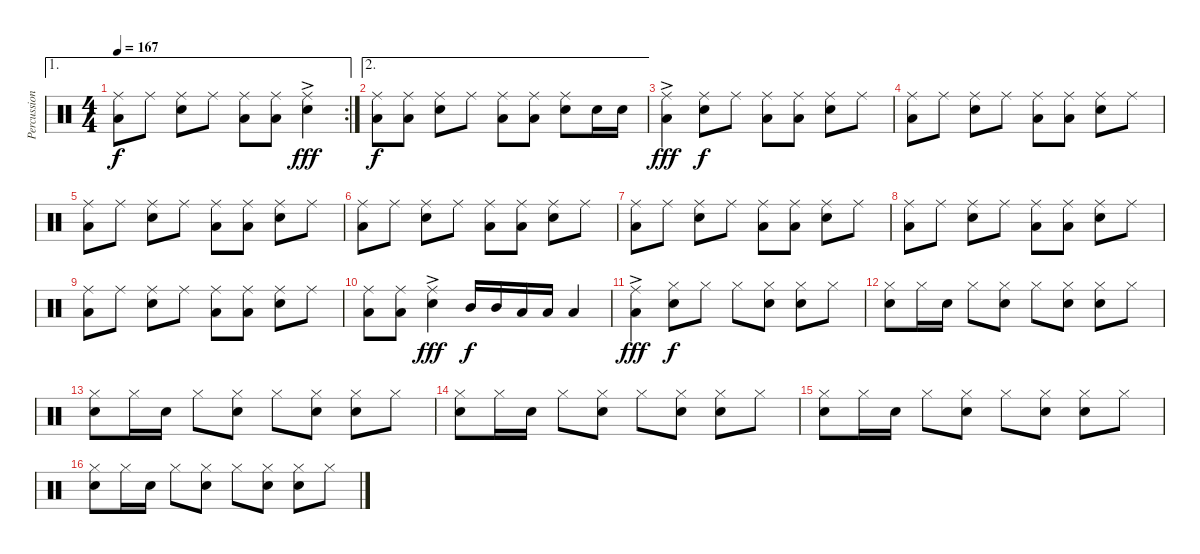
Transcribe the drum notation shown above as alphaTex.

\track ("Percussion" "Percussion") {instrument percussion}
\staff {score}
\articulation defaults
\ae 1
\rc 2
\ts (4 4)
\tempo 167
\clef neutral
\ks c
("Ride (middle)" "Low Floor Tom (hit)").8{dy f} "Ride (middle)".8 ("Ride (middle)" "Snare (hit) 2").8 "Ride (middle)".8 ("Ride (middle)" "Low Floor Tom (hit)").8 ("Ride (middle)" "Low Floor Tom (hit)").8 ("Ride (middle)"{ac} "Snare (hit) 2").4{dy fff} |
\ae 2
("Ride (middle)" "Low Floor Tom (hit)").8{dy f} ("Ride (middle)" "Low Floor Tom (hit)").8 ("Ride (middle)" "Snare (hit) 2").8 "Ride (middle)".8 ("Ride (middle)" "Low Floor Tom (hit)").8 ("Ride (middle)" "Low Floor Tom (hit)").8 ("Ride (middle)" "Snare (hit) 2").8 "Snare (hit) 2".16 "Snare (hit) 2".16 |
("Ride (middle)"{ac} "Low Floor Tom (hit)").4{dy fff} ("Ride (middle)" "Snare (hit) 2").8{dy f} "Ride (middle)".8 ("Ride (middle)" "Low Floor Tom (hit)").8 ("Ride (middle)" "Low Floor Tom (hit)").8 ("Ride (middle)" "Snare (hit) 2").8 "Ride (middle)".8 |
("Ride (middle)" "Low Floor Tom (hit)").8 "Ride (middle)".8 ("Ride (middle)" "Snare (hit) 2").8 "Ride (middle)".8 ("Ride (middle)" "Low Floor Tom (hit)").8 ("Ride (middle)" "Low Floor Tom (hit)").8 ("Ride (middle)" "Snare (hit) 2").8 "Ride (middle)".8 |
("Ride (middle)" "Low Floor Tom (hit)").8 "Ride (middle)".8 ("Ride (middle)" "Snare (hit) 2").8 "Ride (middle)".8 ("Ride (middle)" "Low Floor Tom (hit)").8 ("Ride (middle)" "Low Floor Tom (hit)").8 ("Ride (middle)" "Snare (hit) 2").8 "Ride (middle)".8 |
("Ride (middle)" "Low Floor Tom (hit)").8 "Ride (middle)".8 ("Ride (middle)" "Snare (hit) 2").8 "Ride (middle)".8 ("Ride (middle)" "Low Floor Tom (hit)").8 ("Ride (middle)" "Low Floor Tom (hit)").8 ("Ride (middle)" "Snare (hit) 2").8 "Ride (middle)".8 |
("Ride (middle)" "Low Floor Tom (hit)").8 "Ride (middle)".8 ("Ride (middle)" "Snare (hit) 2").8 "Ride (middle)".8 ("Ride (middle)" "Low Floor Tom (hit)").8 ("Ride (middle)" "Low Floor Tom (hit)").8 ("Ride (middle)" "Snare (hit) 2").8 "Ride (middle)".8 |
("Ride (middle)" "Low Floor Tom (hit)").8 "Ride (middle)".8 ("Ride (middle)" "Snare (hit) 2").8 "Ride (middle)".8 ("Ride (middle)" "Low Floor Tom (hit)").8 ("Ride (middle)" "Low Floor Tom (hit)").8 ("Ride (middle)" "Snare (hit) 2").8 "Ride (middle)".8 |
("Ride (middle)" "Low Floor Tom (hit)").8 "Ride (middle)".8 ("Ride (middle)" "Snare (hit) 2").8 "Ride (middle)".8 ("Ride (middle)" "Low Floor Tom (hit)").8 ("Ride (middle)" "Low Floor Tom (hit)").8 ("Ride (middle)" "Snare (hit) 2").8 "Ride (middle)".8 |
("Ride (middle)" "Low Floor Tom (hit)").8 ("Ride (middle)" "Low Floor Tom (hit)").8 ("Ride (middle)"{ac} "Snare (hit) 2").4{dy fff} "Mid Tom (hit)".16{dy f} "Mid Tom (hit)".16 "Low Tom (hit)".16 "Low Tom (hit)".16 "Low Floor Tom (hit)".4 |
("Ride (middle)"{ac} "Low Floor Tom (hit)").4{dy fff} ("Hi-Hat (closed)" "Snare (hit) 2").8{dy f} "Hi-Hat (closed)".8 "Hi-Hat (closed)".8 ("Hi-Hat (closed)" "Snare (hit) 2").8 ("Hi-Hat (closed)" "Snare (hit) 2").8 "Hi-Hat (closed)".8 |
("Hi-Hat (closed)" "Snare (hit) 2").8 "Hi-Hat (closed)".16 "Snare (hit) 2".16 "Hi-Hat (closed)".8 ("Hi-Hat (closed)" "Snare (hit) 2").8 "Hi-Hat (closed)".8 ("Hi-Hat (closed)" "Snare (hit) 2").8 ("Hi-Hat (closed)" "Snare (hit) 2").8 "Hi-Hat (closed)".8 |
("Hi-Hat (closed)" "Snare (hit) 2").8 "Hi-Hat (closed)".16 "Snare (hit) 2".16 "Hi-Hat (closed)".8 ("Hi-Hat (closed)" "Snare (hit) 2").8 "Hi-Hat (closed)".8 ("Hi-Hat (closed)" "Snare (hit) 2").8 ("Hi-Hat (closed)" "Snare (hit) 2").8 "Hi-Hat (closed)".8 |
("Hi-Hat (closed)" "Snare (hit) 2").8 "Hi-Hat (closed)".16 "Snare (hit) 2".16 "Hi-Hat (closed)".8 ("Hi-Hat (closed)" "Snare (hit) 2").8 "Hi-Hat (closed)".8 ("Hi-Hat (closed)" "Snare (hit) 2").8 ("Hi-Hat (closed)" "Snare (hit) 2").8 "Hi-Hat (closed)".8 |
("Hi-Hat (closed)" "Snare (hit) 2").8 "Hi-Hat (closed)".16 "Snare (hit) 2".16 "Hi-Hat (closed)".8 ("Hi-Hat (closed)" "Snare (hit) 2").8 "Hi-Hat (closed)".8 ("Hi-Hat (closed)" "Snare (hit) 2").8 ("Hi-Hat (closed)" "Snare (hit) 2").8 "Hi-Hat (closed)".8 |
("Hi-Hat (closed)" "Snare (hit) 2").8 "Hi-Hat (closed)".16 "Snare (hit) 2".16 "Hi-Hat (closed)".8 ("Hi-Hat (closed)" "Snare (hit) 2").8 "Hi-Hat (closed)".8 ("Hi-Hat (closed)" "Snare (hit) 2").8 ("Hi-Hat (closed)" "Snare (hit) 2").8 "Hi-Hat (closed)".8
